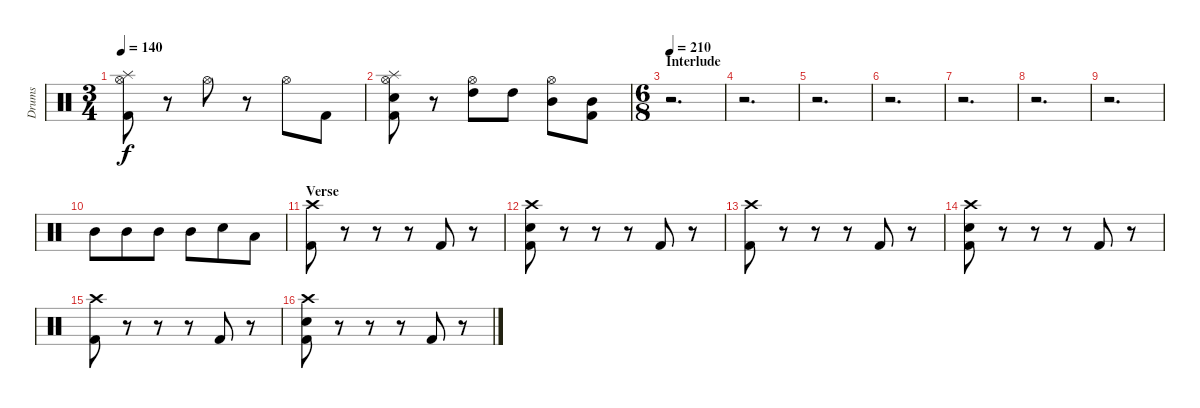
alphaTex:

\track ("Drums" "Drums") {instrument percussion}
\staff {score}
\articulation defaults
\ts (3 4)
\tempo 140
\clef neutral
\ks c
("Splash (hit)" "Hi-Hat (open)" "Kick (hit) 2").8{dy f} r.8 "Hi-Hat (open)".8 r.8 "Hi-Hat (open)".8 "Kick (hit) 2".8 |
("Splash (hit)" "Hi-Hat (open)" "Snare (hit) 2" "Kick (hit) 2").8 r.8 ("Hi-Hat (open)" "High Tom (hit)").8 "High Tom (hit)".8 ("Hi-Hat (open)" "Mid Tom (hit)").8 ("Mid Tom (hit)" "Kick (hit) 2").8 |
\ts (6 8)
\section ("" "Interlude")
\tempo 210
r.2{d} |
r.2{d} |
r.2{d} |
r.2{d} |
r.2{d} |
r.2{d} |
r.2{d} |
"Mid Tom (hit)".8 "Mid Tom (hit)".8 "Mid Tom (hit)".8 "Mid Tom (hit)".8 "Snare (hit) 2".8 "Low Tom (hit)".8 |
\section ("" "Verse")
("Crash high (hit)" "Kick (hit) 2").8 r.8 r.8 r.8 "Kick (hit) 2".8 r.8 |
("Crash high (hit)" "Snare (hit) 2" "Kick (hit) 2").8 r.8 r.8 r.8 "Kick (hit) 2".8 r.8 |
("Crash high (hit)" "Kick (hit) 2").8 r.8 r.8 r.8 "Kick (hit) 2".8 r.8 |
("Crash high (hit)" "Snare (hit) 2" "Kick (hit) 2").8 r.8 r.8 r.8 "Kick (hit) 2".8 r.8 |
("Crash high (hit)" "Kick (hit) 2").8 r.8 r.8 r.8 "Kick (hit) 2".8 r.8 |
("Crash high (hit)" "Snare (hit) 2" "Kick (hit) 2").8 r.8 r.8 r.8 "Kick (hit) 2".8 r.8
